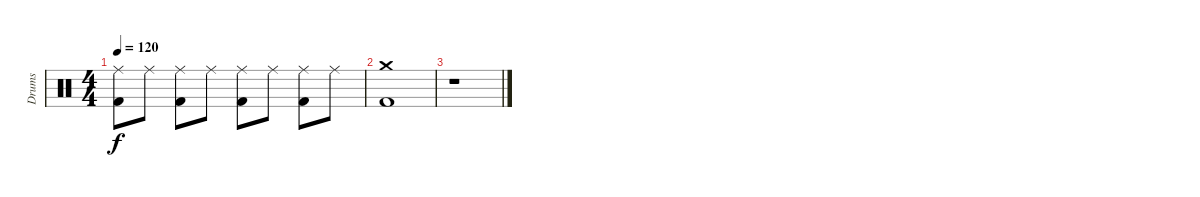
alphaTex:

\track ("Drums" "Drums") {instrument percussion}
\staff {score}
\articulation defaults
\ts (4 4)
\tempo 120
\clef neutral
\ks c
("Ride (middle)" "Kick (hit) 2").8{dy f} "Ride (middle)".8 ("Ride (middle)" "Kick (hit) 2").8 "Ride (middle)".8 ("Ride (middle)" "Kick (hit) 2").8 "Ride (middle)".8 ("Ride (middle)" "Kick (hit) 2").8 "Ride (middle)".8 |
("Crash medium (hit)" "Kick (hit) 2").1 |
r.1
